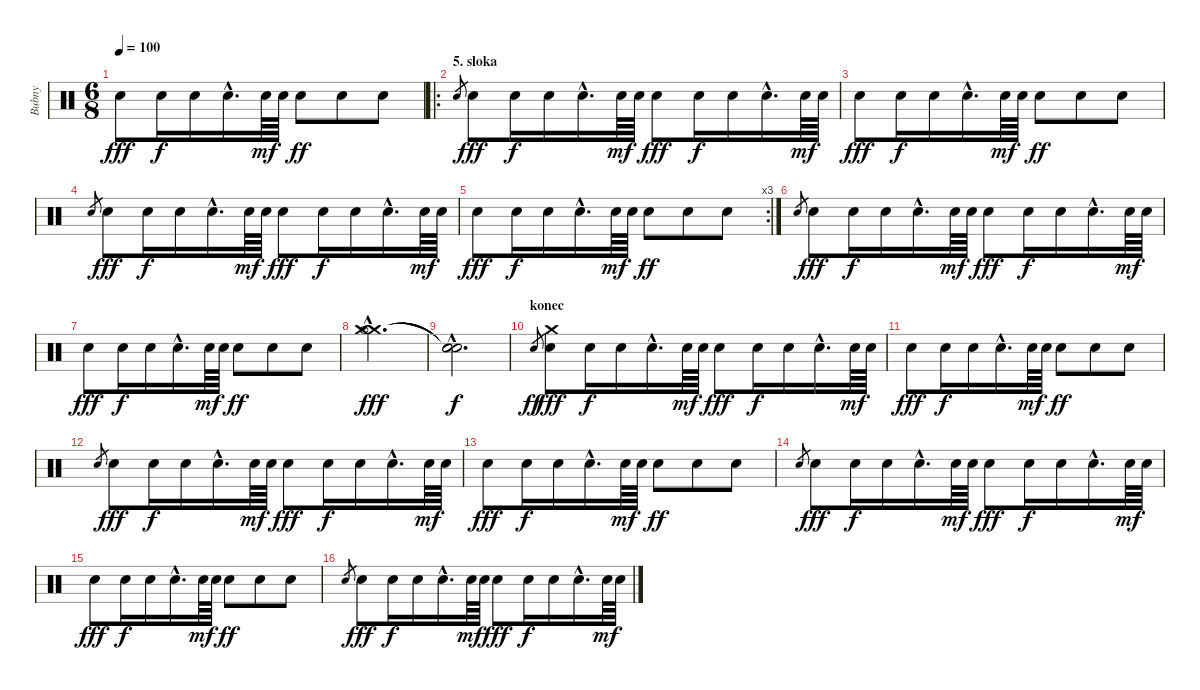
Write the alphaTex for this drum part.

\track ("Bubny" "Bubny") {instrument percussion}
\staff {score}
\articulation defaults
\ts (6 8)
\tempo 100
\clef neutral
\ks c "Electric Snare (hit)".8{dy fff} "Electric Snare (hit)".16{dy f} "Electric Snare (hit)".16 "Electric Snare (hit)"{hac}.16{d} "Electric Snare (hit)".64{dy mf} "Electric Snare (hit)".64 "Electric Snare (hit)".8{dy ff} "Electric Snare (hit)".8 "Electric Snare (hit)".8
|
\ro
\section ("" "5. sloka")
"Electric Snare (hit)".8{gr} "Electric Snare (hit)".8{dy fff} "Electric Snare (hit)".16{dy f} "Electric Snare (hit)".16 "Electric Snare (hit)"{hac}.16{d} "Electric Snare (hit)".64{dy mf} "Electric Snare (hit)".64 "Electric Snare (hit)".8{dy fff} "Electric Snare (hit)".16{dy f} "Electric Snare (hit)".16 "Electric Snare (hit)"{hac}.16{d} "Electric Snare (hit)".64{dy mf} "Electric Snare (hit)".64 |
"Electric Snare (hit)".8{dy fff} "Electric Snare (hit)".16{dy f} "Electric Snare (hit)".16 "Electric Snare (hit)"{hac}.16{d} "Electric Snare (hit)".64{dy mf} "Electric Snare (hit)".64 "Electric Snare (hit)".8{dy ff} "Electric Snare (hit)".8 "Electric Snare (hit)".8 |
"Electric Snare (hit)".8{gr} "Electric Snare (hit)".8{dy fff} "Electric Snare (hit)".16{dy f} "Electric Snare (hit)".16 "Electric Snare (hit)"{hac}.16{d} "Electric Snare (hit)".64{dy mf} "Electric Snare (hit)".64 "Electric Snare (hit)".8{dy fff} "Electric Snare (hit)".16{dy f} "Electric Snare (hit)".16 "Electric Snare (hit)"{hac}.16{d} "Electric Snare (hit)".64{dy mf} "Electric Snare (hit)".64 |
\rc 3 "Electric Snare (hit)".8{dy fff} "Electric Snare (hit)".16{dy f} "Electric Snare (hit)".16 "Electric Snare (hit)"{hac}.16{d} "Electric Snare (hit)".64{dy mf} "Electric Snare (hit)".64 "Electric Snare (hit)".8{dy ff} "Electric Snare (hit)".8 "Electric Snare (hit)".8
|
"Electric Snare (hit)".8{gr} "Electric Snare (hit)".8{dy fff} "Electric Snare (hit)".16{dy f} "Electric Snare (hit)".16 "Electric Snare (hit)"{hac}.16{d} "Electric Snare (hit)".64{dy mf} "Electric Snare (hit)".64 "Electric Snare (hit)".8{dy fff} "Electric Snare (hit)".16{dy f} "Electric Snare (hit)".16 "Electric Snare (hit)"{hac}.16{d} "Electric Snare (hit)".64{dy mf} "Electric Snare (hit)".64 |
"Electric Snare (hit)".8{dy fff} "Electric Snare (hit)".16{dy f} "Electric Snare (hit)".16 "Electric Snare (hit)"{hac}.16{d} "Electric Snare (hit)".64{dy mf} "Electric Snare (hit)".64 "Electric Snare (hit)".8{dy ff} "Electric Snare (hit)".8 "Electric Snare (hit)".8 |
("Crash medium (hit)"{hac} "Crash medium (hit)"{hac} "Hi-Hat (open)"{hac}).2{d dy fff} |
("Snare (hit)"{hac t} "Snare (hit)"{hac t} "Snare (hit)"{hac t}).2{d dy f} |
\section ("" "konec")
"Electric Snare (hit)".8{gr dy ff} ("Electric Snare (hit)" "Crash medium (hit)").8{dy fff} "Electric Snare (hit)".16{dy f} "Electric Snare (hit)".16 "Electric Snare (hit)"{hac}.16{d} "Electric Snare (hit)".64{dy mf} "Electric Snare (hit)".64 "Electric Snare (hit)".8{dy fff} "Electric Snare (hit)".16{dy f} "Electric Snare (hit)".16 "Electric Snare (hit)"{hac}.16{d} "Electric Snare (hit)".64{dy mf} "Electric Snare (hit)".64 |
"Electric Snare (hit)".8{dy fff} "Electric Snare (hit)".16{dy f} "Electric Snare (hit)".16 "Electric Snare (hit)"{hac}.16{d} "Electric Snare (hit)".64{dy mf} "Electric Snare (hit)".64 "Electric Snare (hit)".8{dy ff} "Electric Snare (hit)".8 "Electric Snare (hit)".8 |
"Electric Snare (hit)".8{gr} "Electric Snare (hit)".8{dy fff} "Electric Snare (hit)".16{dy f} "Electric Snare (hit)".16 "Electric Snare (hit)"{hac}.16{d} "Electric Snare (hit)".64{dy mf} "Electric Snare (hit)".64 "Electric Snare (hit)".8{dy fff} "Electric Snare (hit)".16{dy f} "Electric Snare (hit)".16 "Electric Snare (hit)"{hac}.16{d} "Electric Snare (hit)".64{dy mf} "Electric Snare (hit)".64 |
"Electric Snare (hit)".8{dy fff} "Electric Snare (hit)".16{dy f} "Electric Snare (hit)".16 "Electric Snare (hit)"{hac}.16{d} "Electric Snare (hit)".64{dy mf} "Electric Snare (hit)".64 "Electric Snare (hit)".8{dy ff} "Electric Snare (hit)".8 "Electric Snare (hit)".8 |
"Electric Snare (hit)".8{gr} "Electric Snare (hit)".8{dy fff volume 0} "Electric Snare (hit)".16{dy f} "Electric Snare (hit)".16 "Electric Snare (hit)"{hac}.16{d} "Electric Snare (hit)".64{dy mf} "Electric Snare (hit)".64 "Electric Snare (hit)".8{dy fff} "Electric Snare (hit)".16{dy f} "Electric Snare (hit)".16 "Electric Snare (hit)"{hac}.16{d} "Electric Snare (hit)".64{dy mf} "Electric Snare (hit)".64 |
"Electric Snare (hit)".8{dy fff} "Electric Snare (hit)".16{dy f} "Electric Snare (hit)".16 "Electric Snare (hit)"{hac}.16{d} "Electric Snare (hit)".64{dy mf} "Electric Snare (hit)".64 "Electric Snare (hit)".8{dy ff} "Electric Snare (hit)".8 "Electric Snare (hit)".8 |
"Electric Snare (hit)".8{gr} "Electric Snare (hit)".8{dy fff} "Electric Snare (hit)".16{dy f} "Electric Snare (hit)".16 "Electric Snare (hit)"{hac}.16{d} "Electric Snare (hit)".64{dy mf} "Electric Snare (hit)".64 "Electric Snare (hit)".8{dy fff} "Electric Snare (hit)".16{dy f} "Electric Snare (hit)".16 "Electric Snare (hit)"{hac}.16{d} "Electric Snare (hit)".64{dy mf} "Electric Snare (hit)".64
